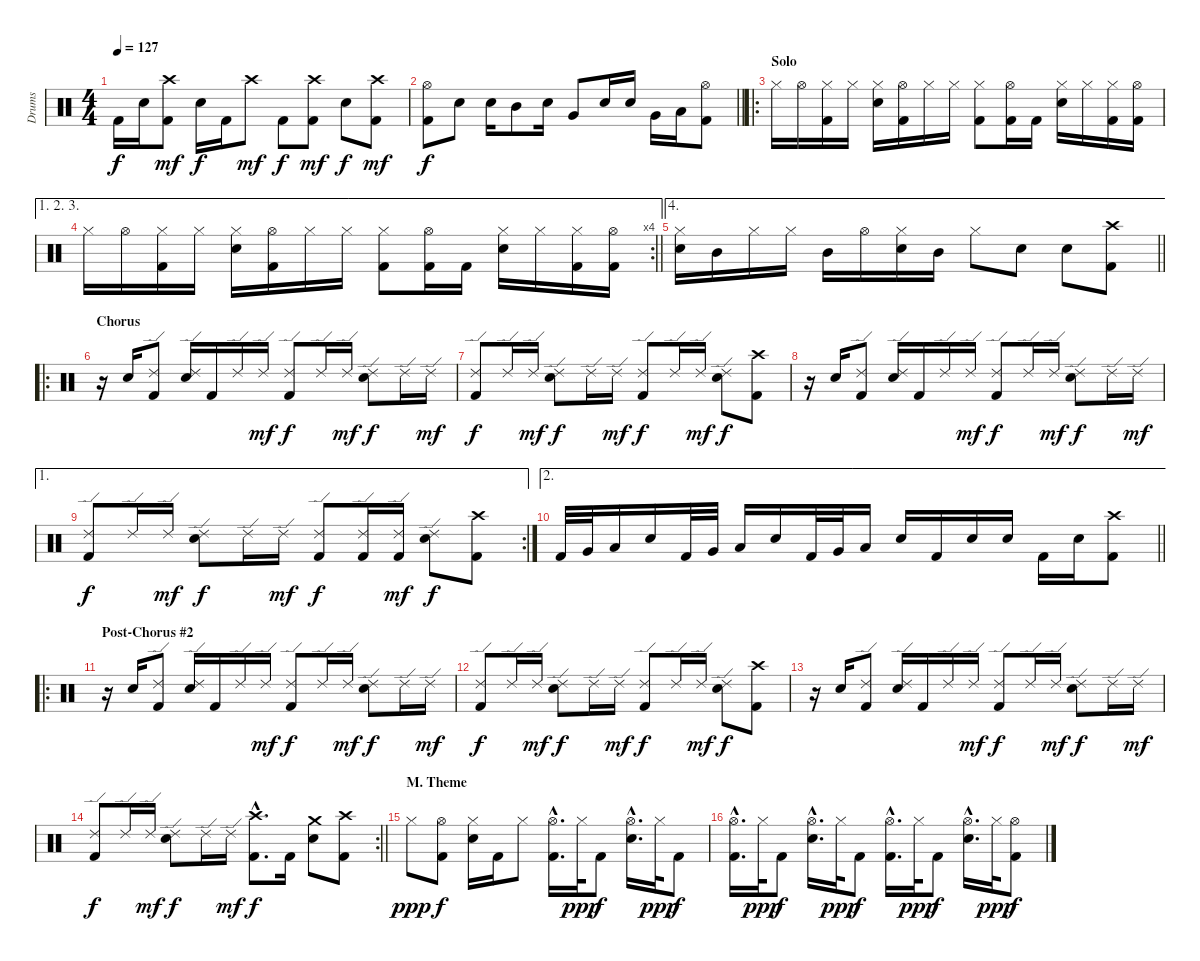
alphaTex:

\track ("Drums" "Drums") {instrument percussion}
\staff {score}
\articulation defaults
\ts (4 4)
\tempo 127
\clef neutral
\ks c "Kick (hit) 2".16{dy f} "Electric Snare (hit)".16
("Crash high (hit)" "Kick (hit) 2").8{dy mf} "Electric Snare (hit)".16{dy f} "Kick (hit) 2".16 "Crash high (hit)".8{dy mf} "Kick (hit) 2".8{dy f} ("Crash high (hit)" "Kick (hit) 2").8{dy mf} "Electric Snare (hit)".8{dy f} ("Crash high (hit)" "Kick (hit) 2").8{dy mf} |
\barLineRight lightlight
("Hi-Hat (open)" "Kick (hit) 2").8{dy f} "Electric Snare (hit)".8 "Electric Snare (hit)".16 "Mid Tom (hit)".8 "Electric Snare (hit)".16 "Very Low Tom (hit)".8 "Electric Snare (hit)".16 "Electric Snare (hit)".16 "Very Low Tom (hit)".16 "Low Floor Tom (hit)".16 ("Hi-Hat (open)" "Kick (hit) 2").8 |
\ro
\section ("" "Solo")
"Hi-Hat (closed)".16 "Hi-Hat (open)".16 ("Hi-Hat (closed)" "Kick (hit) 2").16 "Hi-Hat (closed)".16 ("Hi-Hat (closed)" "Electric Snare (hit)").16 ("Hi-Hat (open)" "Kick (hit) 2").16 "Hi-Hat (closed)".16 "Hi-Hat (closed)".16 ("Hi-Hat (closed)" "Kick (hit) 2").8 ("Hi-Hat (open)" "Kick (hit) 2").16 "Kick (hit) 2".16 ("Hi-Hat (closed)" "Electric Snare (hit)").16 "Hi-Hat (closed)".16 ("Hi-Hat (closed)" "Kick (hit) 2").16 ("Hi-Hat (open)" "Kick (hit) 2").16 |
\ae (1 2 3)
\rc 4
\barLineRight lightlight "Hi-Hat (closed)".16 "Hi-Hat (open)".16
("Hi-Hat (closed)" "Kick (hit) 2").16 "Hi-Hat (closed)".16 ("Hi-Hat (closed)" "Electric Snare (hit)").16 ("Hi-Hat (open)" "Kick (hit) 2").16 "Hi-Hat (closed)".16 "Hi-Hat (closed)".16 ("Hi-Hat (closed)" "Kick (hit) 2").8 ("Hi-Hat (open)" "Kick (hit) 2").16 "Kick (hit) 2".16 ("Hi-Hat (closed)" "Electric Snare (hit)").16 "Hi-Hat (closed)".16 ("Hi-Hat (closed)" "Kick (hit) 2").16 ("Hi-Hat (open)" "Kick (hit) 2").16 |
\ae 4
\barLineRight lightlight
("Hi-Hat (closed)" "Electric Snare (hit)").16 "Mid Tom (hit)".16 "Hi-Hat (closed)".16 "Hi-Hat (closed)".16 "Mid Tom (hit)".16 "Hi-Hat (open)".16 ("Hi-Hat (closed)" "Electric Snare (hit)").16 "Mid Tom (hit)".16 "Hi-Hat (closed)".8 "Electric Snare (hit)".8 "Electric Snare (hit)".8 ("Crash high (hit)" "Kick (hit) 2").8 |
\ro
\section ("" "Chorus")
r.16 "Electric Snare (hit)".16 ("Ride (edge) 2" "Kick (hit) 2").8 ("Ride (edge) 2" "Electric Snare (hit)").16 "Kick (hit) 2".16 "Ride (edge) 2".16 "Ride (edge) 2".16{dy mf} ("Ride (edge) 2" "Kick (hit) 2").8{dy f} "Ride (edge) 2".16 "Ride (edge) 2".16{dy mf} ("Ride (edge) 2" "Electric Snare (hit)").8{dy f} "Ride (edge) 2".16 "Ride (edge) 2".16{dy mf} |
("Ride (edge) 2" "Kick (hit) 2").8{dy f} "Ride (edge) 2".16 "Ride (edge) 2".16{dy mf} ("Ride (edge) 2" "Electric Snare (hit)").8{dy f} "Ride (edge) 2".16 "Ride (edge) 2".16{dy mf} ("Ride (edge) 2" "Kick (hit) 2").8{dy f} "Ride (edge) 2".16 "Ride (edge) 2".16{dy mf} ("Ride (edge) 2" "Electric Snare (hit)").8{dy f} ("Crash high (hit)" "Kick (hit) 2").8 |
r.16 "Electric Snare (hit)".16 ("Ride (edge) 2" "Kick (hit) 2").8 ("Ride (edge) 2" "Electric Snare (hit)").16 "Kick (hit) 2".16 "Ride (edge) 2".16 "Ride (edge) 2".16{dy mf} ("Ride (edge) 2" "Kick (hit) 2").8{dy f} "Ride (edge) 2".16 "Ride (edge) 2".16{dy mf} ("Ride (edge) 2" "Electric Snare (hit)").8{dy f} "Ride (edge) 2".16 "Ride (edge) 2".16{dy mf} |
\ae 1
\rc 2
("Ride (edge) 2" "Kick (hit) 2").8{dy f} "Ride (edge) 2".16 "Ride (edge) 2".16{dy mf} ("Ride (edge) 2" "Electric Snare (hit)").8{dy f} "Ride (edge) 2".16 "Ride (edge) 2".16{dy mf} ("Ride (edge) 2" "Kick (hit) 2").8{dy f} ("Ride (edge) 2" "Kick (hit) 2").16 ("Ride (edge) 2" "Kick (hit) 2").16{dy mf} ("Ride (edge) 2" "Electric Snare (hit)").8{dy f} ("Crash high (hit)" "Kick (hit) 2").8 |
\ae 2
\barLineRight lightlight "Kick (hit) 2".32 "Very Low Tom (hit)".32 "Low Floor Tom (hit)".16 "Electric Snare (hit)".16 "Kick (hit) 2".32 "Very Low Tom (hit)".32 "Low Floor Tom (hit)".16 "Electric Snare (hit)".16 "Kick (hit) 2".32 "Very Low Tom (hit)".32 "Low Floor Tom (hit)".16 "Electric Snare (hit)".16 "Kick (hit) 2".16 "Electric Snare (hit)".16 "Electric Snare (hit)".16 "Kick (hit) 2".16 "Electric Snare (hit)".16
("Crash high (hit)" "Kick (hit) 2").8 |
\ro
\section ("" "Post-Chorus #2")
r.16 "Electric Snare (hit)".16 ("Ride (edge) 2" "Kick (hit) 2").8 ("Ride (edge) 2" "Electric Snare (hit)").16 "Kick (hit) 2".16 "Ride (edge) 2".16 "Ride (edge) 2".16{dy mf} ("Ride (edge) 2" "Kick (hit) 2").8{dy f} "Ride (edge) 2".16 "Ride (edge) 2".16{dy mf} ("Ride (edge) 2" "Electric Snare (hit)").8{dy f} "Ride (edge) 2".16 "Ride (edge) 2".16{dy mf} |
("Ride (edge) 2" "Kick (hit) 2").8{dy f} "Ride (edge) 2".16 "Ride (edge) 2".16{dy mf} ("Ride (edge) 2" "Electric Snare (hit)").8{dy f} "Ride (edge) 2".16 "Ride (edge) 2".16{dy mf} ("Ride (edge) 2" "Kick (hit) 2").8{dy f} "Ride (edge) 2".16 "Ride (edge) 2".16{dy mf} ("Ride (edge) 2" "Electric Snare (hit)").8{dy f} ("Crash high (hit)" "Kick (hit) 2").8 |
r.16 "Electric Snare (hit)".16 ("Ride (edge) 2" "Kick (hit) 2").8 ("Ride (edge) 2" "Electric Snare (hit)").16 "Kick (hit) 2".16 "Ride (edge) 2".16 "Ride (edge) 2".16{dy mf} ("Ride (edge) 2" "Kick (hit) 2").8{dy f} "Ride (edge) 2".16 "Ride (edge) 2".16{dy mf} ("Ride (edge) 2" "Electric Snare (hit)").8{dy f} "Ride (edge) 2".16 "Ride (edge) 2".16{dy mf} |
\rc 2
\barLineRight lightlight
("Ride (edge) 2" "Kick (hit) 2").8{dy f} "Ride (edge) 2".16 "Ride (edge) 2".16{dy mf} ("Ride (edge) 2" "Electric Snare (hit)").8{dy f} "Ride (edge) 2".16 "Ride (edge) 2".16{dy mf} ("Crash high (hit)"{hac} "Kick (hit) 2"{hac}).8{d dy f} "Kick (hit) 2".16 ("Crash medium (hit)" "Electric Snare (hit)").8 ("Crash high (hit)" "Kick (hit) 2").8 |
\section ("" "M. Theme")
"Hi-Hat (closed)".8{dy ppp} ("Hi-Hat (open)" "Kick (hit) 2").8{dy f} ("Hi-Hat (closed)" "Electric Snare (hit)").16 "Kick (hit) 2".16 "Hi-Hat (closed)".8 ("Hi-Hat (open)"{hac} "Kick (hit) 2"{hac}).16{d} "Hi-Hat (closed)".32{dy ppp} "Kick (hit) 2".8{dy f} ("Hi-Hat (open)"{hac} "Electric Snare (hit)"{hac}).16{d} "Hi-Hat (closed)".32{dy ppp} "Kick (hit) 2".8{dy f} |
("Hi-Hat (open)"{hac} "Kick (hit) 2"{hac}).16{d} "Hi-Hat (closed)".32{dy ppp} "Kick (hit) 2".8{dy f} ("Hi-Hat (open)"{hac} "Electric Snare (hit)"{hac}).16{d} "Hi-Hat (closed)".32{dy ppp} "Kick (hit) 2".8{dy f} ("Hi-Hat (open)"{hac} "Kick (hit) 2"{hac}).16{d} "Hi-Hat (closed)".32{dy ppp} "Kick (hit) 2".8{dy f} ("Hi-Hat (open)"{hac} "Electric Snare (hit)"{hac}).16{d} "Hi-Hat (closed)".32{dy ppp} ("Hi-Hat (open)" "Kick (hit) 2").8{dy f}
